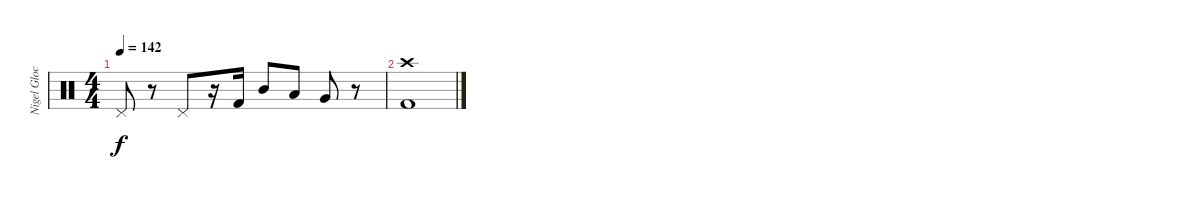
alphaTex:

\track ("Nigel Glockler (Drums)" "Nigel Gloc") {instrument percussion}
\staff {score}
\articulation defaults
\ts (4 4)
\tempo 142
\clef neutral
\ks c "Pedal Hi-Hat (hit)".8{dy f}
r.8 "Pedal Hi-Hat (hit)".8 r.16 "Kick (hit) 2".16 "Mid Tom (hit)".8 "Low Tom (hit)".8 "Very Low Tom (hit)".8 r.8 |
("Crash high (hit)" "Kick (hit) 2").1
